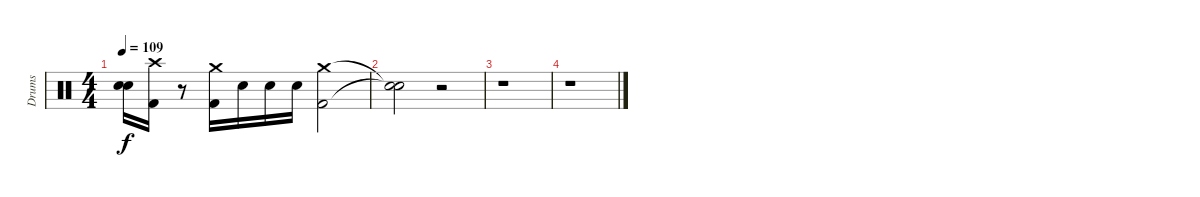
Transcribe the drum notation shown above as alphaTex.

\track ("Drums" "Drums") {instrument percussion}
\staff {score}
\articulation defaults
\ts (4 4)
\tempo 109
\clef neutral
\ks c
("Snare (hit)"{t} "Snare (hit)"{t}).16{dy f} ("Crash high (hit)" "Kick (hit) 2").16 r.8 ("Crash medium (hit)" "Kick (hit) 2").16 "Electric Snare (hit)".16 "Electric Snare (hit)".16 "Electric Snare (hit)".16 ("Crash medium (hit)" "Kick (hit) 2").2 |
("Snare (hit)"{t} "Snare (hit)"{t}).2 r.2 |
r.1 |
r.1
